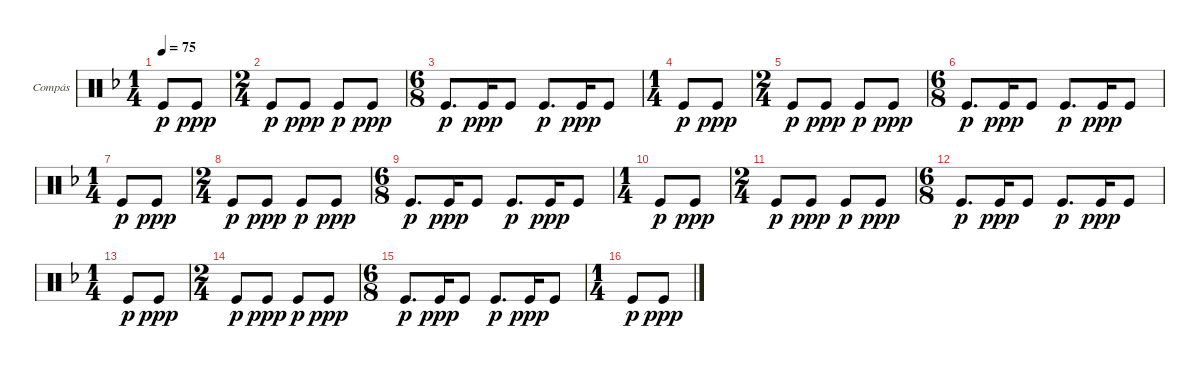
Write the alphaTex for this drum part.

\defaultSystemsLayout 4
\bracketExtendMode groupsimilarinstruments
\firstSystemTrackNameOrientation horizontal
\otherSystemsTrackNameOrientation horizontal
\track ("Compás" "Compás") {instrument percussion}
\staff {score}
\articulation defaults
\ts (1 4)
\tempo 75
\clef neutral
\ks f "Kick (hit)".8{dy p} "Kick (hit)".8{dy ppp}
|
\ts (2 4)
"Kick (hit)".8{dy p} "Kick (hit)".8{dy ppp} "Kick (hit)".8{dy p} "Kick (hit)".8{dy ppp} |
\ts (6 8)
"Kick (hit)".8{d dy p} "Kick (hit)".16{dy ppp} "Kick (hit)".8 "Kick (hit)".8{d dy p} "Kick (hit)".16{dy ppp} "Kick (hit)".8 |
\ts (1 4)
"Kick (hit)".8{dy p} "Kick (hit)".8{dy ppp} |
\ts (2 4)
"Kick (hit)".8{dy p} "Kick (hit)".8{dy ppp} "Kick (hit)".8{dy p} "Kick (hit)".8{dy ppp} |
\ts (6 8)
"Kick (hit)".8{d dy p} "Kick (hit)".16{dy ppp} "Kick (hit)".8 "Kick (hit)".8{d dy p} "Kick (hit)".16{dy ppp} "Kick (hit)".8 |
\ts (1 4)
"Kick (hit)".8{dy p} "Kick (hit)".8{dy ppp} |
\ts (2 4)
"Kick (hit)".8{dy p} "Kick (hit)".8{dy ppp} "Kick (hit)".8{dy p} "Kick (hit)".8{dy ppp} |
\ts (6 8)
"Kick (hit)".8{d dy p} "Kick (hit)".16{dy ppp} "Kick (hit)".8 "Kick (hit)".8{d dy p} "Kick (hit)".16{dy ppp} "Kick (hit)".8 |
\ts (1 4)
"Kick (hit)".8{dy p} "Kick (hit)".8{dy ppp} |
\ts (2 4)
"Kick (hit)".8{dy p} "Kick (hit)".8{dy ppp} "Kick (hit)".8{dy p} "Kick (hit)".8{dy ppp} |
\ts (6 8)
"Kick (hit)".8{d dy p} "Kick (hit)".16{dy ppp} "Kick (hit)".8 "Kick (hit)".8{d dy p} "Kick (hit)".16{dy ppp} "Kick (hit)".8 |
\ts (1 4)
"Kick (hit)".8{dy p} "Kick (hit)".8{dy ppp} |
\ts (2 4)
"Kick (hit)".8{dy p} "Kick (hit)".8{dy ppp} "Kick (hit)".8{dy p} "Kick (hit)".8{dy ppp} |
\ts (6 8)
"Kick (hit)".8{d dy p} "Kick (hit)".16{dy ppp} "Kick (hit)".8 "Kick (hit)".8{d dy p} "Kick (hit)".16{dy ppp} "Kick (hit)".8 |
\ts (1 4)
"Kick (hit)".8{dy p} "Kick (hit)".8{dy ppp}
